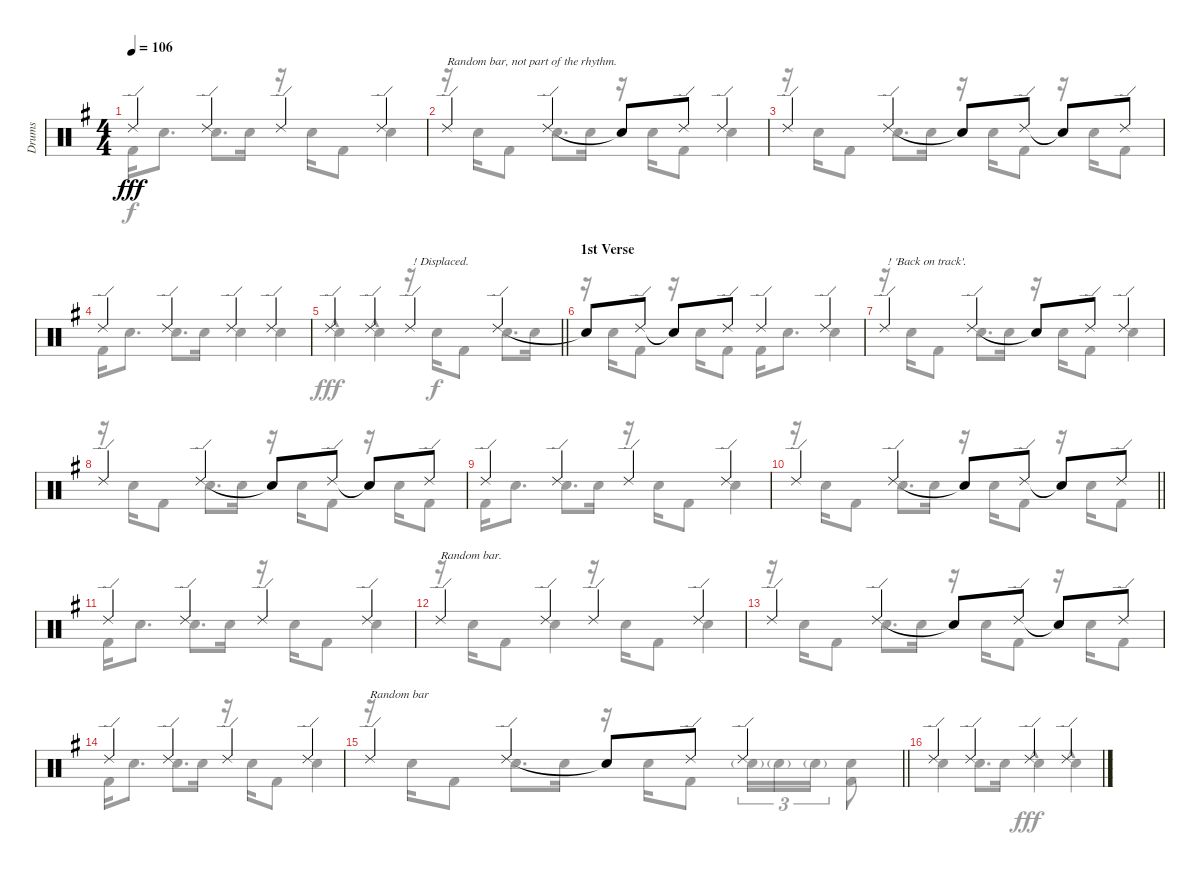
\track ("Drums" "Drums") {instrument percussion}
\staff {score}
\articulation defaults
\voice
\ts (4 4)
\tempo 106
\clef neutral
\ks eminor "Ride (edge) 2".4{dy fff} "Ride (edge) 2".4 "Ride (edge) 2".4 "Ride (edge) 2".4
|
"Ride (edge) 2".4{txt "Random bar, not part of the rhythm."} "Ride (edge) 2".4 "Snare (hit)"{t}.8 "Ride (edge) 2".8 "Ride (edge) 2".4 |
"Ride (edge) 2".4 "Ride (edge) 2".4 "Snare (hit)"{t}.8 "Ride (edge) 2".8 "Snare (hit)"{t}.8 "Ride (edge) 2".8 |
"Ride (edge) 2".4 "Ride (edge) 2".4 "Ride (edge) 2".4 "Ride (edge) 2".4 |
\barLineRight lightlight "Ride (edge) 2".4 "Ride (edge) 2".4 "Ride (edge) 2".4{txt " ! Displaced."} "Ride (edge) 2".4
|
\section ("" "1st Verse")
"Snare (hit)"{t}.8 "Ride (edge) 2".8 "Snare (hit)"{t}.8 "Ride (edge) 2".8 "Ride (edge) 2".4 "Ride (edge) 2".4 |
"Ride (edge) 2".4{txt " ! 'Back on track'."} "Ride (edge) 2".4 "Snare (hit)"{t}.8 "Ride (edge) 2".8 "Ride (edge) 2".4 |
"Ride (edge) 2".4 "Ride (edge) 2".4 "Snare (hit)"{t}.8 "Ride (edge) 2".8 "Snare (hit)"{t}.8 "Ride (edge) 2".8 |
"Ride (edge) 2".4 "Ride (edge) 2".4 "Ride (edge) 2".4 "Ride (edge) 2".4 |
\barLineRight lightlight "Ride (edge) 2".4 "Ride (edge) 2".4 "Snare (hit)"{t}.8 "Ride (edge) 2".8 "Snare (hit)"{t}.8 "Ride (edge) 2".8
|
"Ride (edge) 2".4 "Ride (edge) 2".4 "Ride (edge) 2".4 "Ride (edge) 2".4 |
"Ride (edge) 2".4{txt "Random bar."} "Ride (edge) 2".4 "Ride (edge) 2".4 "Ride (edge) 2".4 |
"Ride (edge) 2".4 "Ride (edge) 2".4 "Snare (hit)"{t}.8 "Ride (edge) 2".8 "Snare (hit)"{t}.8 "Ride (edge) 2".8 |
"Ride (edge) 2".4 "Ride (edge) 2".4 "Ride (edge) 2".4 "Ride (edge) 2".4 |
\barLineRight lightlight "Ride (edge) 2".4{txt "Random bar"} "Ride (edge) 2".4 "Snare (hit)"{t}.8 "Ride (edge) 2".8 "Ride (edge) 2".4
|
"Ride (edge) 2".4 "Ride (edge) 2".4 "Ride (edge) 2".4 "Ride (edge) 2".4
\voice
\clef neutral
\ottava regular
\simile none
\ks eminor "Kick (hit) 2".16{dy f} "Electric Snare (hit)".8{d} "Electric Snare (hit)".8{d} "Electric Snare (hit)".16
r.16 "Electric Snare (hit)".16 "Kick (hit) 2".8 "Electric Snare (hit)".4 |
r.16 "Electric Snare (hit)".16 "Kick (hit) 2".8 "Electric Snare (hit)".8{d} "Electric Snare (hit)".16 r.16 "Electric Snare (hit)".16 "Kick (hit) 2".8 "Electric Snare (hit)".4 |
r.16 "Electric Snare (hit)".16 "Kick (hit) 2".8 "Electric Snare (hit)".8{d} "Electric Snare (hit)".16 r.16 "Electric Snare (hit)".16 "Kick (hit) 2".8 r.16 "Electric Snare (hit)".16 "Kick (hit) 2".8 |
"Kick (hit) 2".16 "Electric Snare (hit)".8{d} "Electric Snare (hit)".8{d} "Electric Snare (hit)".16 "Electric Snare (hit)".4 "Electric Snare (hit)".4 |
\barLineRight lightlight "Electric Snare (hit)"{hac}.4{dy fff} "Electric Snare (hit)"{hac}.4
r.16 "Electric Snare (hit)".16{dy f} "Kick (hit) 2".8 "Electric Snare (hit)".8{d} "Electric Snare (hit)".16 |
r.16 "Electric Snare (hit)".16 "Kick (hit) 2".8 r.16 "Electric Snare (hit)".16 "Kick (hit) 2".8 "Kick (hit) 2".16 "Electric Snare (hit)".8{d} "Electric Snare (hit)".4 |
r.16 "Electric Snare (hit)".16 "Kick (hit) 2".8 "Electric Snare (hit)".8{d} "Electric Snare (hit)".16 r.16 "Electric Snare (hit)".16 "Kick (hit) 2".8 "Electric Snare (hit)".4 |
r.16 "Electric Snare (hit)".16 "Kick (hit) 2".8 "Electric Snare (hit)".8{d} "Electric Snare (hit)".16 r.16 "Electric Snare (hit)".16 "Kick (hit) 2".8 r.16 "Electric Snare (hit)".16 "Kick (hit) 2".8 |
"Kick (hit) 2".16 "Electric Snare (hit)".8{d} "Electric Snare (hit)".8{d} "Electric Snare (hit)".16 r.16 "Electric Snare (hit)".16 "Kick (hit) 2".8 "Electric Snare (hit)".4 |
\barLineRight lightlight
r.16 "Electric Snare (hit)".16 "Kick (hit) 2".8 "Electric Snare (hit)".8{d} "Electric Snare (hit)".16 r.16 "Electric Snare (hit)".16 "Kick (hit) 2".8 r.16 "Electric Snare (hit)".16 "Kick (hit) 2".8 |
"Kick (hit) 2".16 "Electric Snare (hit)".8{d} "Electric Snare (hit)".8{d} "Electric Snare (hit)".16 r.16 "Electric Snare (hit)".16 "Kick (hit) 2".8 "Electric Snare (hit)".4 |
r.16 "Electric Snare (hit)".16 "Kick (hit) 2".8 "Electric Snare (hit)".4 r.16 "Electric Snare (hit)".16 "Kick (hit) 2".8 "Electric Snare (hit)".4 |
r.16 "Electric Snare (hit)".16 "Kick (hit) 2".8 "Electric Snare (hit)".8{d} "Electric Snare (hit)".16 r.16 "Electric Snare (hit)".16 "Kick (hit) 2".8 r.16 "Electric Snare (hit)".16 "Kick (hit) 2".8 |
"Kick (hit) 2".16 "Electric Snare (hit)".8{d} "Electric Snare (hit)".8{d} "Electric Snare (hit)".16 r.16 "Electric Snare (hit)".16 "Kick (hit) 2".8 "Electric Snare (hit)".4 |
\barLineRight lightlight
r.16 "Electric Snare (hit)".16 "Kick (hit) 2".8 "Electric Snare (hit)".8{d} "Electric Snare (hit)".16 r.16 "Electric Snare (hit)".16 "Kick (hit) 2".8 "Electric Snare (hit)"{g}.16{tu (3 2)} "Electric Snare (hit)"{g}.16{tu (3 2)} "Electric Snare (hit)"{g}.16{tu (3 2)} ("Electric Snare (hit)" "Kick (hit) 2").8 |
"Electric Snare (hit)".4 "Electric Snare (hit)".8{d} "Electric Snare (hit)".16 "Electric Snare (hit)"{hac}.4{dy fff} "Electric Snare (hit)"{hac}.4
